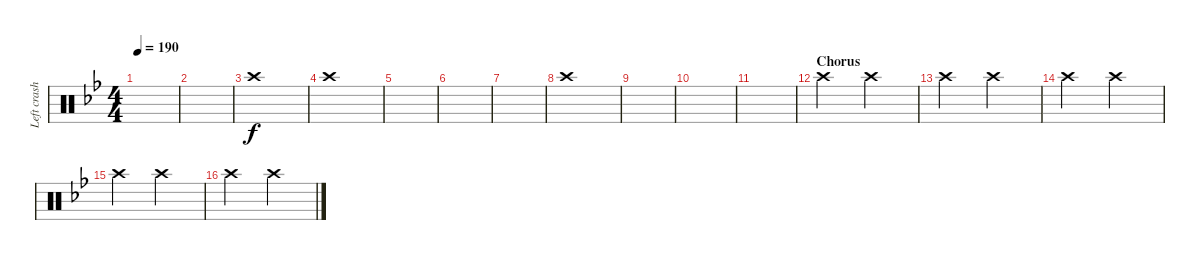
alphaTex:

\track ("Left crash" "Left crash") {instrument percussion}
\staff {score}
\articulation defaults
\ts (4 4)
\tempo 190
\clef neutral
\ks bb
|
|
"Crash high (hit)".1 |
"Crash high (hit)".1 |
|
|
|
"Crash high (hit)".1 |
|
|
|
\section ("" "Chorus")
"Crash high (hit)".2 "Crash high (hit)".2 |
"Crash high (hit)".2 "Crash high (hit)".2 |
"Crash high (hit)".2 "Crash high (hit)".2 |
"Crash high (hit)".2 "Crash high (hit)".2 |
"Crash high (hit)".2 "Crash high (hit)".2
